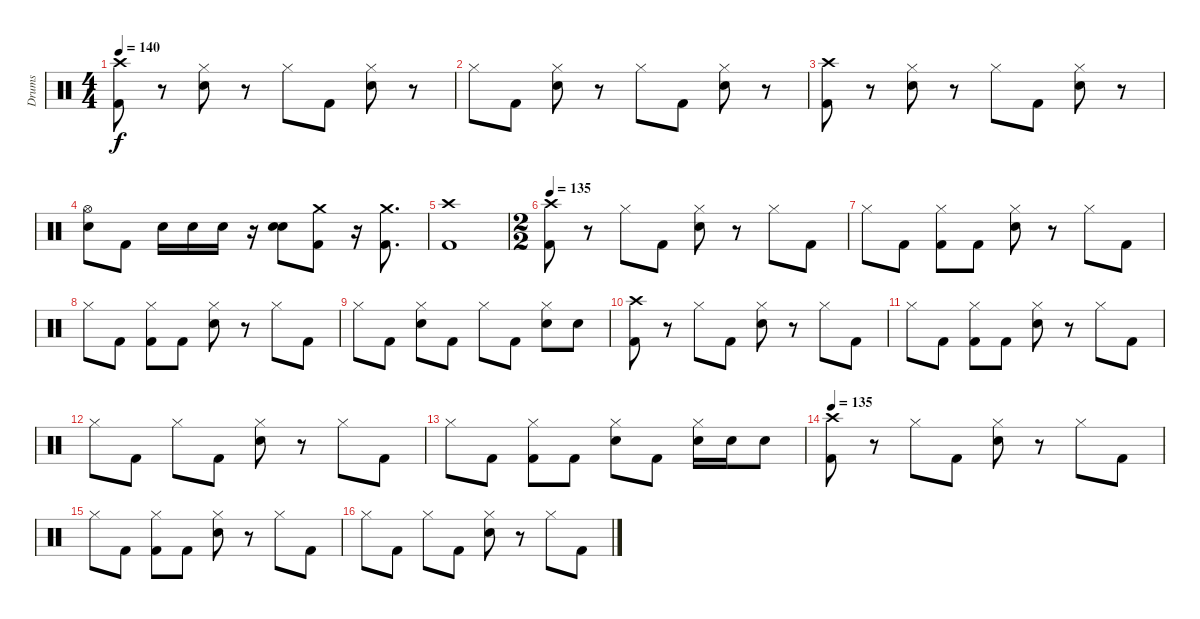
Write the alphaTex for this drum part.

\track ("Drums" "Drums") {instrument percussion}
\staff {score}
\articulation defaults
\ts (4 4)
\tempo 140
\clef neutral
\ks c
("Crash high (hit)" "Kick (hit) 2").8{dy f} r.8 ("Hi-Hat (closed)" "Snare (hit) 2").8 r.8 "Hi-Hat (closed)".8 "Kick (hit) 2".8 ("Hi-Hat (closed)" "Snare (hit) 2").8 r.8 |
"Hi-Hat (closed)".8 "Kick (hit) 2".8 ("Hi-Hat (closed)" "Snare (hit) 2").8 r.8 "Hi-Hat (closed)".8 "Kick (hit) 2".8 ("Hi-Hat (closed)" "Snare (hit) 2").8 r.8 |
("Crash high (hit)" "Kick (hit) 2").8 r.8 ("Hi-Hat (closed)" "Snare (hit) 2").8 r.8 "Hi-Hat (closed)".8 "Kick (hit) 2".8 ("Hi-Hat (closed)" "Snare (hit) 2").8 r.8 |
("Hi-Hat (open)" "Snare (hit) 2").8 "Kick (hit) 2".8 "Snare (hit) 2".16 "Snare (hit) 2".16 "Snare (hit) 2".16 r.16 ("Snare (hit) 2" "Snare (hit) 2").8{bd 480} ("Crash medium (hit)" "Kick (hit) 2").8 r.16 ("Crash medium (hit)" "Kick (hit) 2").8{d} |
("Crash high (hit)" "Kick (hit) 2").1 |
\ts (2 2)
\tempo 120
\tempo 135
("Crash high (hit)" "Kick (hit) 2").8 r.8 "Hi-Hat (closed)".8 "Kick (hit) 2".8 ("Hi-Hat (closed)" "Snare (hit) 2").8 r.8 "Hi-Hat (closed)".8 "Kick (hit) 2".8 |
"Hi-Hat (closed)".8 "Kick (hit) 2".8 ("Hi-Hat (closed)" "Kick (hit) 2").8 "Kick (hit) 2".8 ("Hi-Hat (closed)" "Snare (hit) 2").8 r.8 "Hi-Hat (closed)".8 "Kick (hit) 2".8 |
"Hi-Hat (closed)".8 "Kick (hit) 2".8 ("Hi-Hat (closed)" "Kick (hit) 2").8 "Kick (hit) 2".8 ("Hi-Hat (closed)" "Snare (hit) 2").8 r.8 "Hi-Hat (closed)".8 "Kick (hit) 2".8 |
"Hi-Hat (closed)".8 "Kick (hit) 2".8 ("Hi-Hat (closed)" "Snare (hit) 2").8 "Kick (hit) 2".8 "Hi-Hat (closed)".8 "Kick (hit) 2".8 ("Hi-Hat (closed)" "Snare (hit) 2").8 "Snare (hit) 2".8 |
("Crash high (hit)" "Kick (hit) 2").8 r.8 "Hi-Hat (closed)".8 "Kick (hit) 2".8 ("Hi-Hat (closed)" "Snare (hit) 2").8 r.8 "Hi-Hat (closed)".8 "Kick (hit) 2".8 |
"Hi-Hat (closed)".8 "Kick (hit) 2".8 ("Hi-Hat (closed)" "Kick (hit) 2").8 "Kick (hit) 2".8 ("Hi-Hat (closed)" "Snare (hit) 2").8 r.8 "Hi-Hat (closed)".8 "Kick (hit) 2".8 |
"Hi-Hat (closed)".8 "Kick (hit) 2".8 "Hi-Hat (closed)".8 "Kick (hit) 2".8 ("Hi-Hat (closed)" "Snare (hit) 2").8 r.8 "Hi-Hat (closed)".8 "Kick (hit) 2".8 |
"Hi-Hat (closed)".8 "Kick (hit) 2".8 ("Hi-Hat (closed)" "Kick (hit) 2").8 "Kick (hit) 2".8 ("Hi-Hat (closed)" "Snare (hit) 2").8 "Kick (hit) 2".8 ("Hi-Hat (closed)" "Snare (hit) 2").16 "Snare (hit) 2".16 "Snare (hit) 2".8 |
\tempo 135
("Crash high (hit)" "Kick (hit) 2").8 r.8 "Hi-Hat (closed)".8 "Kick (hit) 2".8 ("Hi-Hat (closed)" "Snare (hit) 2").8 r.8 "Hi-Hat (closed)".8 "Kick (hit) 2".8 |
"Hi-Hat (closed)".8 "Kick (hit) 2".8 ("Hi-Hat (closed)" "Kick (hit) 2").8 "Kick (hit) 2".8 ("Hi-Hat (closed)" "Snare (hit) 2").8 r.8 "Hi-Hat (closed)".8 "Kick (hit) 2".8 |
"Hi-Hat (closed)".8 "Kick (hit) 2".8 "Hi-Hat (closed)".8 "Kick (hit) 2".8 ("Hi-Hat (closed)" "Snare (hit) 2").8 r.8 "Hi-Hat (closed)".8 "Kick (hit) 2".8
